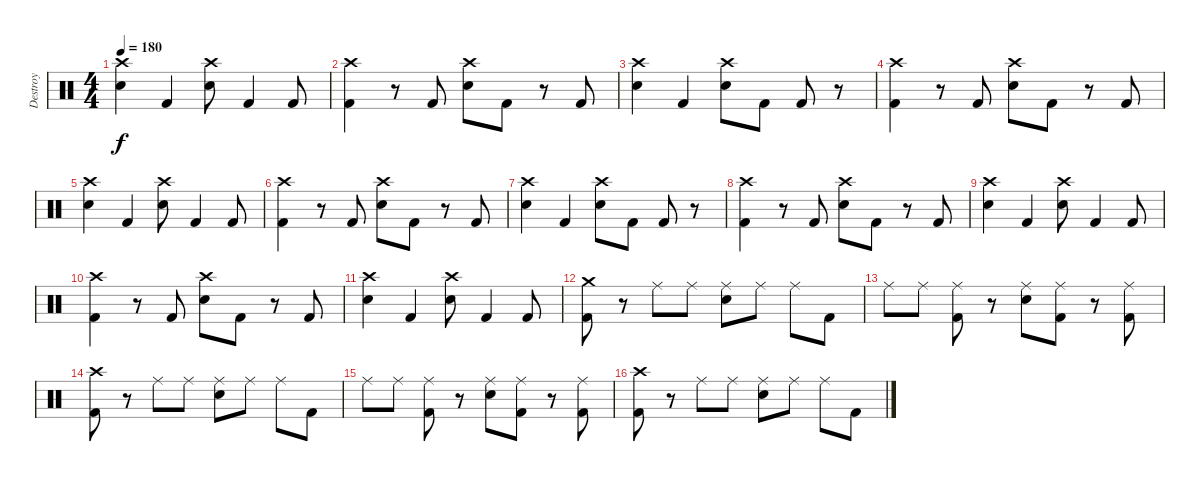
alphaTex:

\track ("Destroy" "Destroy") {instrument percussion}
\staff {score}
\articulation defaults
\ts (4 4)
\tempo 180
\clef neutral
\ks c
("Crash high (hit)" "Electric Snare (hit)").4{dy f} "Kick (hit) 2".4 ("Crash high (hit)" "Electric Snare (hit)").8 "Kick (hit) 2".4 "Kick (hit) 2".8 |
("Crash high (hit)" "Kick (hit) 2").4 r.8 "Kick (hit) 2".8 ("Crash high (hit)" "Electric Snare (hit)").8 "Kick (hit) 2".8 r.8 "Kick (hit) 2".8 |
("Crash high (hit)" "Electric Snare (hit)").4 "Kick (hit) 2".4 ("Crash high (hit)" "Electric Snare (hit)").8 "Kick (hit) 2".8 "Kick (hit) 2".8 r.8 |
("Crash high (hit)" "Kick (hit) 2").4 r.8 "Kick (hit) 2".8 ("Crash high (hit)" "Electric Snare (hit)").8 "Kick (hit) 2".8 r.8 "Kick (hit) 2".8 |
("Crash high (hit)" "Electric Snare (hit)").4 "Kick (hit) 2".4 ("Crash high (hit)" "Electric Snare (hit)").8 "Kick (hit) 2".4 "Kick (hit) 2".8 |
("Crash high (hit)" "Kick (hit) 2").4 r.8 "Kick (hit) 2".8 ("Crash high (hit)" "Electric Snare (hit)").8 "Kick (hit) 2".8 r.8 "Kick (hit) 2".8 |
("Crash high (hit)" "Electric Snare (hit)").4 "Kick (hit) 2".4 ("Crash high (hit)" "Electric Snare (hit)").8 "Kick (hit) 2".8 "Kick (hit) 2".8 r.8 |
("Crash high (hit)" "Kick (hit) 2").4 r.8 "Kick (hit) 2".8 ("Crash high (hit)" "Electric Snare (hit)").8 "Kick (hit) 2".8 r.8 "Kick (hit) 2".8 |
("Crash high (hit)" "Electric Snare (hit)").4 "Kick (hit) 2".4 ("Crash high (hit)" "Electric Snare (hit)").8 "Kick (hit) 2".4 "Kick (hit) 2".8 |
("Crash high (hit)" "Kick (hit) 2").4 r.8 "Kick (hit) 2".8 ("Crash high (hit)" "Electric Snare (hit)").8 "Kick (hit) 2".8 r.8 "Kick (hit) 2".8 |
("Crash high (hit)" "Electric Snare (hit)").4 "Kick (hit) 2".4 ("Crash high (hit)" "Electric Snare (hit)").8 "Kick (hit) 2".4 "Kick (hit) 2".8 |
("Crash medium (hit)" "Kick (hit) 2").8 r.8 "Ride (middle)".8 "Ride (middle)".8 ("Ride (middle)" "Electric Snare (hit)").8 "Ride (middle)".8 "Ride (middle)".8 "Kick (hit) 2".8 |
"Ride (middle)".8 "Ride (middle)".8 ("Ride (middle)" "Kick (hit) 2").8 r.8 ("Ride (middle)" "Electric Snare (hit)").8 ("Ride (middle)" "Kick (hit) 2").8 r.8 ("Ride (middle)" "Kick (hit) 2").8 |
("Crash high (hit)" "Kick (hit) 2").8 r.8 "Ride (middle)".8 "Ride (middle)".8 ("Ride (middle)" "Electric Snare (hit)").8 "Ride (middle)".8 "Ride (middle)".8 "Kick (hit) 2".8 |
"Ride (middle)".8 "Ride (middle)".8 ("Ride (middle)" "Kick (hit) 2").8 r.8 ("Ride (middle)" "Electric Snare (hit)").8 ("Ride (middle)" "Kick (hit) 2").8 r.8 ("Ride (middle)" "Kick (hit) 2").8 |
("Crash high (hit)" "Kick (hit) 2").8 r.8 "Ride (middle)".8 "Ride (middle)".8 ("Ride (middle)" "Electric Snare (hit)").8 "Ride (middle)".8 "Ride (middle)".8 "Kick (hit) 2".8
